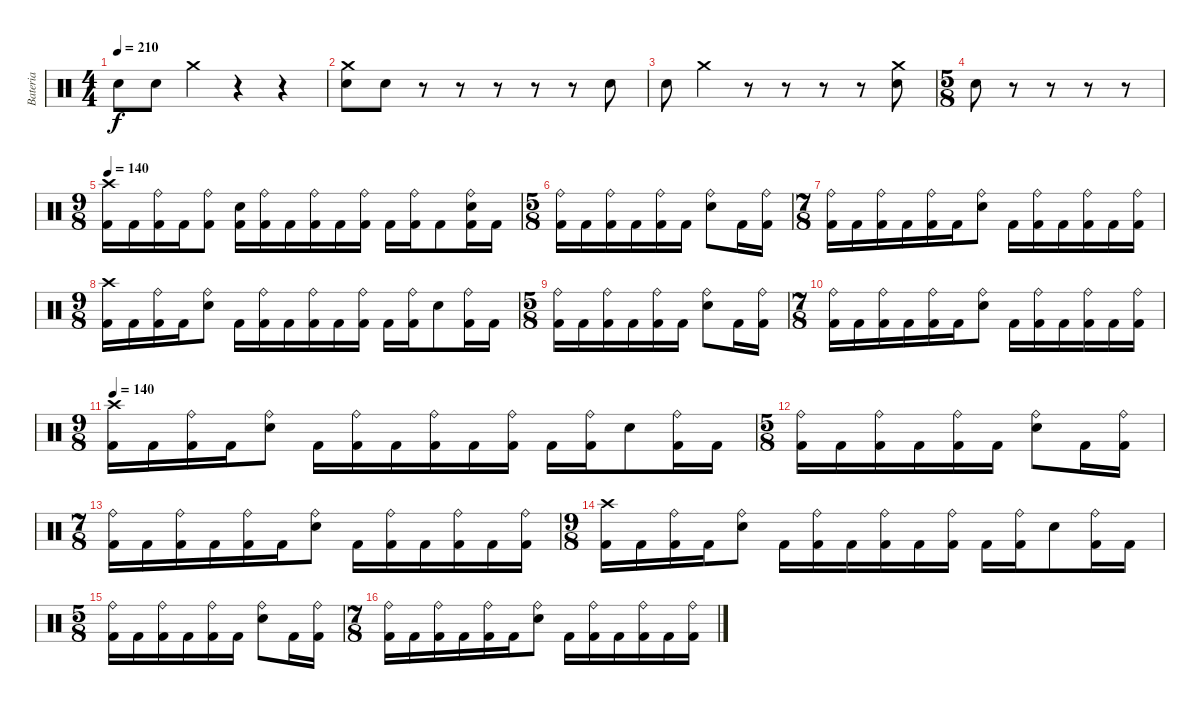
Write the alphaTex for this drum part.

\track ("Bateria" "Bateria") {instrument percussion}
\staff {score}
\articulation defaults
\ts (4 4)
\tempo 210
\clef neutral
\ks c "Electric Snare (hit)".8{dy f} "Electric Snare (hit)".8 "Crash medium (hit)".4
r.4 r.4 |
("Crash medium (hit)" "Electric Snare (hit)").8 "Electric Snare (hit)".8 r.8 r.8 r.8 r.8 r.8 "Electric Snare (hit)".8 |
"Electric Snare (hit)".8 "Crash medium (hit)".4 r.8 r.8 r.8 r.8 ("Crash medium (hit)" "Electric Snare (hit)").8 |
\ts (5 8)
"Electric Snare (hit)".8 r.8 r.8 r.8 r.8 |
\ts (9 8)
\tempo 140
("Crash high (hit)" "Kick (hit) 2").16 "Kick (hit) 2".16 ("Ride (bell)" "Kick (hit) 2").16 "Kick (hit) 2".16 ("Ride (bell)" "Kick (hit) 2").8 ("Electric Snare (hit)" "Kick (hit) 2").16 ("Ride (bell)" "Kick (hit) 2").16 "Kick (hit) 2".16 ("Ride (bell)" "Kick (hit) 2").16 "Kick (hit) 2".16 ("Ride (bell)" "Kick (hit) 2").16 "Kick (hit) 2".16 ("Ride (bell)" "Kick (hit) 2").16 "Kick (hit) 2".8 ("Ride (bell)" "Kick (hit) 2" "Electric Snare (hit)").16 "Kick (hit) 2".16 |
\ts (5 8)
("Ride (bell)" "Kick (hit) 2").16 "Kick (hit) 2".16 ("Ride (bell)" "Kick (hit) 2").16 "Kick (hit) 2".16 ("Ride (bell)" "Kick (hit) 2").16 "Kick (hit) 2".16 ("Ride (bell)" "Electric Snare (hit)").8 "Kick (hit) 2".16 ("Ride (bell)" "Kick (hit) 2").16 |
\ts (7 8)
("Ride (bell)" "Kick (hit) 2").16 "Kick (hit) 2".16 ("Ride (bell)" "Kick (hit) 2").16 "Kick (hit) 2".16 ("Ride (bell)" "Kick (hit) 2").16 "Kick (hit) 2".16 ("Ride (bell)" "Electric Snare (hit)").8 "Kick (hit) 2".16 ("Ride (bell)" "Kick (hit) 2").16 "Kick (hit) 2".16 ("Ride (bell)" "Kick (hit) 2").16 "Kick (hit) 2".16 ("Ride (bell)" "Kick (hit) 2").16 |
\ts (9 8)
("Crash high (hit)" "Kick (hit) 2").16 "Kick (hit) 2".16 ("Ride (bell)" "Kick (hit) 2").16 "Kick (hit) 2".16 ("Ride (bell)" "Electric Snare (hit)").8 "Kick (hit) 2".16 ("Ride (bell)" "Kick (hit) 2").16 "Kick (hit) 2".16 ("Ride (bell)" "Kick (hit) 2").16 "Kick (hit) 2".16 ("Ride (bell)" "Kick (hit) 2").16 "Kick (hit) 2".16 ("Ride (bell)" "Kick (hit) 2").16 "Electric Snare (hit)".8 ("Ride (bell)" "Kick (hit) 2").16 "Kick (hit) 2".16 |
\ts (5 8)
("Ride (bell)" "Kick (hit) 2").16 "Kick (hit) 2".16 ("Ride (bell)" "Kick (hit) 2").16 "Kick (hit) 2".16 ("Ride (bell)" "Kick (hit) 2").16 "Kick (hit) 2".16 ("Ride (bell)" "Electric Snare (hit)").8 "Kick (hit) 2".16 ("Ride (bell)" "Kick (hit) 2").16 |
\ts (7 8)
("Ride (bell)" "Kick (hit) 2").16 "Kick (hit) 2".16 ("Ride (bell)" "Kick (hit) 2").16 "Kick (hit) 2".16 ("Ride (bell)" "Kick (hit) 2").16 "Kick (hit) 2".16 ("Ride (bell)" "Electric Snare (hit)").8 "Kick (hit) 2".16 ("Ride (bell)" "Kick (hit) 2").16 "Kick (hit) 2".16 ("Ride (bell)" "Kick (hit) 2").16 "Kick (hit) 2".16 ("Ride (bell)" "Kick (hit) 2").16 |
\ts (9 8)
\tempo 140
("Crash high (hit)" "Kick (hit) 2").16 "Kick (hit) 2".16 ("Ride (bell)" "Kick (hit) 2").16 "Kick (hit) 2".16 ("Ride (bell)" "Electric Snare (hit)").8 "Kick (hit) 2".16 ("Ride (bell)" "Kick (hit) 2").16 "Kick (hit) 2".16 ("Ride (bell)" "Kick (hit) 2").16 "Kick (hit) 2".16 ("Ride (bell)" "Kick (hit) 2").16 "Kick (hit) 2".16 ("Ride (bell)" "Kick (hit) 2").16 "Electric Snare (hit)".8 ("Ride (bell)" "Kick (hit) 2").16 "Kick (hit) 2".16 |
\ts (5 8)
("Ride (bell)" "Kick (hit) 2").16 "Kick (hit) 2".16 ("Ride (bell)" "Kick (hit) 2").16 "Kick (hit) 2".16 ("Ride (bell)" "Kick (hit) 2").16 "Kick (hit) 2".16 ("Ride (bell)" "Electric Snare (hit)").8 "Kick (hit) 2".16 ("Ride (bell)" "Kick (hit) 2").16 |
\ts (7 8)
("Ride (bell)" "Kick (hit) 2").16 "Kick (hit) 2".16 ("Ride (bell)" "Kick (hit) 2").16 "Kick (hit) 2".16 ("Ride (bell)" "Kick (hit) 2").16 "Kick (hit) 2".16 ("Ride (bell)" "Electric Snare (hit)").8 "Kick (hit) 2".16 ("Ride (bell)" "Kick (hit) 2").16 "Kick (hit) 2".16 ("Ride (bell)" "Kick (hit) 2").16 "Kick (hit) 2".16 ("Ride (bell)" "Kick (hit) 2").16 |
\ts (9 8)
("Crash high (hit)" "Kick (hit) 2").16 "Kick (hit) 2".16 ("Ride (bell)" "Kick (hit) 2").16 "Kick (hit) 2".16 ("Ride (bell)" "Electric Snare (hit)").8 "Kick (hit) 2".16 ("Ride (bell)" "Kick (hit) 2").16 "Kick (hit) 2".16 ("Ride (bell)" "Kick (hit) 2").16 "Kick (hit) 2".16 ("Ride (bell)" "Kick (hit) 2").16 "Kick (hit) 2".16 ("Ride (bell)" "Kick (hit) 2").16 "Electric Snare (hit)".8 ("Ride (bell)" "Kick (hit) 2").16 "Kick (hit) 2".16 |
\ts (5 8)
("Ride (bell)" "Kick (hit) 2").16 "Kick (hit) 2".16 ("Ride (bell)" "Kick (hit) 2").16 "Kick (hit) 2".16 ("Ride (bell)" "Kick (hit) 2").16 "Kick (hit) 2".16 ("Ride (bell)" "Electric Snare (hit)").8 "Kick (hit) 2".16 ("Ride (bell)" "Kick (hit) 2").16 |
\ts (7 8)
("Ride (bell)" "Kick (hit) 2").16 "Kick (hit) 2".16 ("Ride (bell)" "Kick (hit) 2").16 "Kick (hit) 2".16 ("Ride (bell)" "Kick (hit) 2").16 "Kick (hit) 2".16 ("Ride (bell)" "Electric Snare (hit)").8 "Kick (hit) 2".16 ("Ride (bell)" "Kick (hit) 2").16 "Kick (hit) 2".16 ("Ride (bell)" "Kick (hit) 2").16 "Kick (hit) 2".16 ("Ride (bell)" "Kick (hit) 2").16
